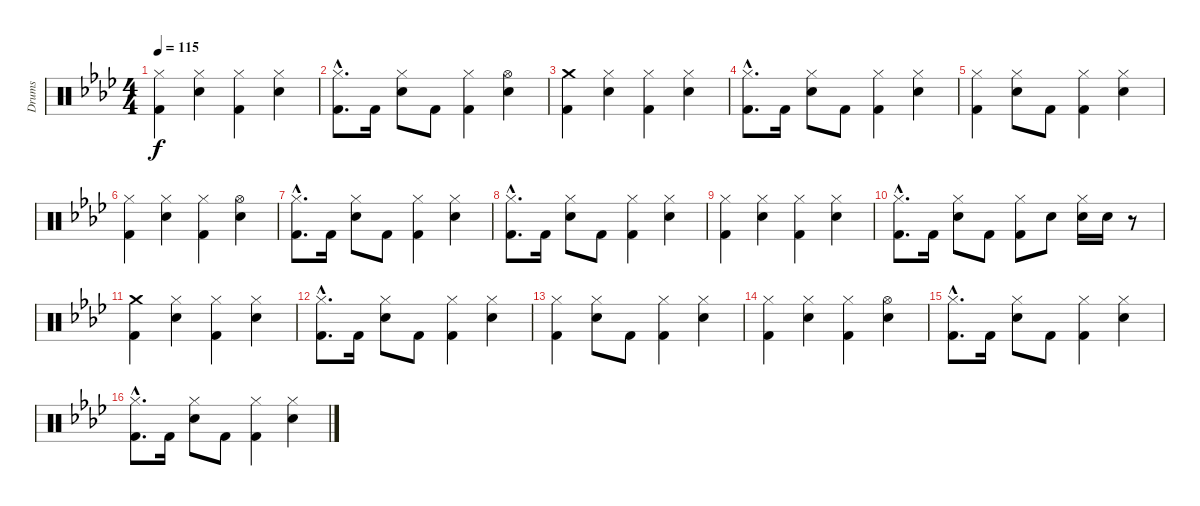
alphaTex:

\track ("Drums" "Drums") {instrument percussion}
\staff {score}
\articulation defaults
\ts (4 4)
\tempo 115
\clef neutral
\ks ab
("Hi-Hat (closed)" "Kick (hit) 2").4{dy f} ("Hi-Hat (closed)" "Snare (hit) 2").4 ("Hi-Hat (closed)" "Kick (hit) 2").4 ("Hi-Hat (closed)" "Snare (hit) 2").4 |
("Hi-Hat (closed)"{hac} "Kick (hit) 2"{hac}).8{d} "Kick (hit) 2".16 ("Hi-Hat (closed)" "Snare (hit) 2").8 "Kick (hit) 2".8 ("Hi-Hat (closed)" "Kick (hit) 2").4 ("Hi-Hat (open)" "Snare (hit) 2").4 |
("Crash medium (hit)" "Kick (hit) 2").4 ("Hi-Hat (closed)" "Snare (hit) 2").4 ("Hi-Hat (closed)" "Kick (hit) 2").4 ("Hi-Hat (closed)" "Snare (hit) 2").4 |
("Hi-Hat (closed)"{hac} "Kick (hit) 2"{hac}).8{d} "Kick (hit) 2".16 ("Hi-Hat (closed)" "Snare (hit) 2").8 "Kick (hit) 2".8 ("Hi-Hat (closed)" "Kick (hit) 2").4 ("Hi-Hat (closed)" "Snare (hit) 2").4 |
("Hi-Hat (closed)" "Kick (hit) 2").4 ("Hi-Hat (closed)" "Snare (hit) 2").8 "Kick (hit) 2".8 ("Hi-Hat (closed)" "Kick (hit) 2").4 ("Hi-Hat (closed)" "Snare (hit) 2").4 |
("Hi-Hat (closed)" "Kick (hit) 2").4 ("Hi-Hat (closed)" "Snare (hit) 2").4 ("Hi-Hat (closed)" "Kick (hit) 2").4 ("Hi-Hat (open)" "Snare (hit) 2").4 |
("Hi-Hat (closed)"{hac} "Kick (hit) 2"{hac}).8{d} "Kick (hit) 2".16 ("Hi-Hat (closed)" "Snare (hit) 2").8 "Kick (hit) 2".8 ("Hi-Hat (closed)" "Kick (hit) 2").4 ("Hi-Hat (closed)" "Snare (hit) 2").4 |
("Hi-Hat (closed)"{hac} "Kick (hit) 2"{hac}).8{d} "Kick (hit) 2".16 ("Hi-Hat (closed)" "Snare (hit) 2").8 "Kick (hit) 2".8 ("Hi-Hat (closed)" "Kick (hit) 2").4 ("Hi-Hat (closed)" "Snare (hit) 2").4 |
("Hi-Hat (closed)" "Kick (hit) 2").4 ("Hi-Hat (closed)" "Snare (hit) 2").4 ("Hi-Hat (closed)" "Kick (hit) 2").4 ("Hi-Hat (closed)" "Snare (hit) 2").4 |
("Hi-Hat (closed)"{hac} "Kick (hit) 2"{hac}).8{d} "Kick (hit) 2".16 ("Hi-Hat (closed)" "Snare (hit) 2").8 "Kick (hit) 2".8 ("Hi-Hat (closed)" "Kick (hit) 2").8 "Snare (hit) 2".8 ("Hi-Hat (closed)" "Snare (hit) 2").16 "Snare (hit) 2".16 r.8 |
("Crash medium (hit)" "Kick (hit) 2").4 ("Hi-Hat (closed)" "Snare (hit) 2").4 ("Hi-Hat (closed)" "Kick (hit) 2").4 ("Hi-Hat (closed)" "Snare (hit) 2").4 |
("Hi-Hat (closed)"{hac} "Kick (hit) 2"{hac}).8{d} "Kick (hit) 2".16 ("Hi-Hat (closed)" "Snare (hit) 2").8 "Kick (hit) 2".8 ("Hi-Hat (closed)" "Kick (hit) 2").4 ("Hi-Hat (closed)" "Snare (hit) 2").4 |
("Hi-Hat (closed)" "Kick (hit) 2").4 ("Hi-Hat (closed)" "Snare (hit) 2").8 "Kick (hit) 2".8 ("Hi-Hat (closed)" "Kick (hit) 2").4 ("Hi-Hat (closed)" "Snare (hit) 2").4 |
("Hi-Hat (closed)" "Kick (hit) 2").4 ("Hi-Hat (closed)" "Snare (hit) 2").4 ("Hi-Hat (closed)" "Kick (hit) 2").4 ("Hi-Hat (open)" "Snare (hit) 2").4 |
("Hi-Hat (closed)"{hac} "Kick (hit) 2"{hac}).8{d} "Kick (hit) 2".16 ("Hi-Hat (closed)" "Snare (hit) 2").8 "Kick (hit) 2".8 ("Hi-Hat (closed)" "Kick (hit) 2").4 ("Hi-Hat (closed)" "Snare (hit) 2").4 |
("Hi-Hat (closed)"{hac} "Kick (hit) 2"{hac}).8{d} "Kick (hit) 2".16 ("Hi-Hat (closed)" "Snare (hit) 2").8 "Kick (hit) 2".8 ("Hi-Hat (closed)" "Kick (hit) 2").4 ("Hi-Hat (closed)" "Snare (hit) 2").4
